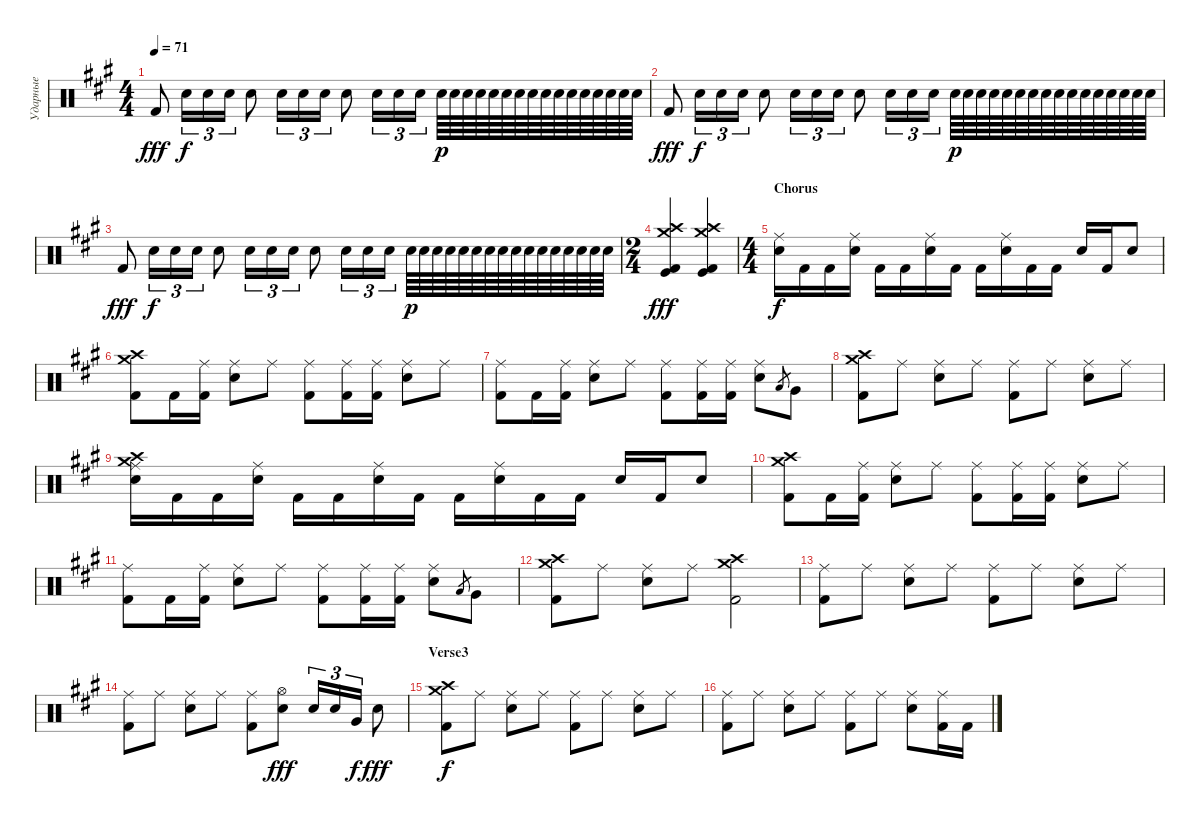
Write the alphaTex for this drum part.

\track ("Ударные" "Ударные") {instrument percussion}
\staff {score}
\articulation defaults
\ts (4 4)
\tempo 71
\clef neutral
\ks f#minor "Kick (hit) 2".8{dy fff} "Electric Snare (hit)".16{tu (3 2) dy f} "Electric Snare (hit)".16{tu (3 2)} "Electric Snare (hit)".16{tu (3 2)} "Electric Snare (hit)".8 "Electric Snare (hit)".16{tu (3 2)} "Electric Snare (hit)".16{tu (3 2)} "Electric Snare (hit)".16{tu (3 2)} "Electric Snare (hit)".8 "Electric Snare (hit)".16{tu (3 2)} "Electric Snare (hit)".16{tu (3 2)} "Electric Snare (hit)".16{tu (3 2)} "Electric Snare (hit)".64{dy p} "Electric Snare (hit)".64 "Electric Snare (hit)".64 "Electric Snare (hit)".64 "Electric Snare (hit)".64 "Electric Snare (hit)".64 "Electric Snare (hit)".64 "Electric Snare (hit)".64 "Electric Snare (hit)".64 "Electric Snare (hit)".64 "Electric Snare (hit)".64 "Electric Snare (hit)".64 "Electric Snare (hit)".64 "Electric Snare (hit)".64 "Electric Snare (hit)".64 "Electric Snare (hit)".64
|
"Kick (hit) 2".8{dy fff} "Electric Snare (hit)".16{tu (3 2) dy f} "Electric Snare (hit)".16{tu (3 2)} "Electric Snare (hit)".16{tu (3 2)} "Electric Snare (hit)".8 "Electric Snare (hit)".16{tu (3 2)} "Electric Snare (hit)".16{tu (3 2)} "Electric Snare (hit)".16{tu (3 2)} "Electric Snare (hit)".8 "Electric Snare (hit)".16{tu (3 2)} "Electric Snare (hit)".16{tu (3 2)} "Electric Snare (hit)".16{tu (3 2)} "Electric Snare (hit)".64{dy p} "Electric Snare (hit)".64 "Electric Snare (hit)".64 "Electric Snare (hit)".64 "Electric Snare (hit)".64 "Electric Snare (hit)".64 "Electric Snare (hit)".64 "Electric Snare (hit)".64 "Electric Snare (hit)".64 "Electric Snare (hit)".64 "Electric Snare (hit)".64 "Electric Snare (hit)".64 "Electric Snare (hit)".64 "Electric Snare (hit)".64 "Electric Snare (hit)".64 "Electric Snare (hit)".64 |
"Kick (hit) 2".8{dy fff} "Electric Snare (hit)".16{tu (3 2) dy f} "Electric Snare (hit)".16{tu (3 2)} "Electric Snare (hit)".16{tu (3 2)} "Electric Snare (hit)".8 "Electric Snare (hit)".16{tu (3 2)} "Electric Snare (hit)".16{tu (3 2)} "Electric Snare (hit)".16{tu (3 2)} "Electric Snare (hit)".8 "Electric Snare (hit)".16{tu (3 2)} "Electric Snare (hit)".16{tu (3 2)} "Electric Snare (hit)".16{tu (3 2)} "Electric Snare (hit)".64{dy p} "Electric Snare (hit)".64 "Electric Snare (hit)".64 "Electric Snare (hit)".64 "Electric Snare (hit)".64 "Electric Snare (hit)".64 "Electric Snare (hit)".64 "Electric Snare (hit)".64 "Electric Snare (hit)".64 "Electric Snare (hit)".64 "Electric Snare (hit)".64 "Electric Snare (hit)".64 "Electric Snare (hit)".64 "Electric Snare (hit)".64 "Electric Snare (hit)".64 "Electric Snare (hit)".64 |
\ts (2 4)
("Crash high (hit)" "Crash medium (hit)" "Kick (hit) 2" "Kick (hit)").4{dy fff} ("Crash high (hit)" "Crash medium (hit)" "Kick (hit) 2" "Kick (hit)").4 |
\ts (4 4)
\section ("" "Chorus")
("Ride (middle)" "Electric Snare (hit)").16{dy f} "Kick (hit) 2".16 "Kick (hit) 2".16 ("Ride (middle)" "Electric Snare (hit)").16 "Kick (hit) 2".16 "Kick (hit) 2".16 ("Ride (middle)" "Electric Snare (hit)").16 "Kick (hit) 2".16 "Kick (hit) 2".16 ("Ride (middle)" "Electric Snare (hit)").16 "Kick (hit) 2".16 "Kick (hit) 2".16 "Electric Snare (hit)".16 "Kick (hit) 2".16 "Electric Snare (hit)".8 |
("Crash high (hit)" "Kick (hit) 2" "Crash medium (hit)").8 "Kick (hit) 2".16 ("Ride (middle)" "Kick (hit) 2").16 ("Ride (middle)" "Electric Snare (hit)").8 "Ride (middle)".8 ("Ride (middle)" "Kick (hit) 2").8 ("Ride (middle)" "Kick (hit) 2").16 ("Ride (middle)" "Kick (hit) 2").16 ("Ride (middle)" "Electric Snare (hit)").8 "Ride (middle)".8 |
("Ride (middle)" "Kick (hit) 2").8 "Kick (hit) 2".16 ("Ride (middle)" "Kick (hit) 2").16 ("Ride (middle)" "Electric Snare (hit)").8 "Ride (middle)".8 ("Ride (middle)" "Kick (hit) 2").8 ("Ride (middle)" "Kick (hit) 2").16 ("Ride (middle)" "Kick (hit) 2").16 ("Ride (middle)" "Electric Snare (hit)").8 "Low Floor Tom (hit)".8{gr} "Very Low Tom (hit)".8 |
("Crash high (hit)" "Kick (hit) 2" "Crash medium (hit)").8 "Ride (middle)".8 ("Ride (middle)" "Electric Snare (hit)").8 "Ride (middle)".8 ("Ride (middle)" "Kick (hit) 2").8 "Ride (middle)".8 ("Ride (middle)" "Electric Snare (hit)").8 "Ride (middle)".8 |
("Ride (middle)" "Crash high (hit)" "Electric Snare (hit)" "Crash medium (hit)").16 "Kick (hit) 2".16 "Kick (hit) 2".16 ("Ride (middle)" "Electric Snare (hit)").16 "Kick (hit) 2".16 "Kick (hit) 2".16 ("Ride (middle)" "Electric Snare (hit)").16 "Kick (hit) 2".16 "Kick (hit) 2".16 ("Ride (middle)" "Electric Snare (hit)").16 "Kick (hit) 2".16 "Kick (hit) 2".16 "Electric Snare (hit)".16 "Kick (hit) 2".16 "Electric Snare (hit)".8 |
("Crash high (hit)" "Kick (hit) 2" "Crash medium (hit)").8 "Kick (hit) 2".16 ("Ride (middle)" "Kick (hit) 2").16 ("Ride (middle)" "Electric Snare (hit)").8 "Ride (middle)".8 ("Ride (middle)" "Kick (hit) 2").8 ("Ride (middle)" "Kick (hit) 2").16 ("Ride (middle)" "Kick (hit) 2").16 ("Ride (middle)" "Electric Snare (hit)").8 "Ride (middle)".8 |
("Ride (middle)" "Kick (hit) 2").8 "Kick (hit) 2".16 ("Ride (middle)" "Kick (hit) 2").16 ("Ride (middle)" "Electric Snare (hit)").8 "Ride (middle)".8 ("Ride (middle)" "Kick (hit) 2").8 ("Ride (middle)" "Kick (hit) 2").16 ("Ride (middle)" "Kick (hit) 2").16 ("Ride (middle)" "Electric Snare (hit)").8 "Low Floor Tom (hit)".8{gr} "Very Low Tom (hit)".8 |
("Crash high (hit)" "Kick (hit) 2" "Crash medium (hit)").8 "Ride (middle)".8 ("Ride (middle)" "Electric Snare (hit)").8 "Ride (middle)".8 ("Crash high (hit)" "Crash medium (hit)" "Kick (hit) 2").2 |
("Ride (middle)" "Kick (hit) 2").8 "Ride (middle)".8 ("Ride (middle)" "Electric Snare (hit)").8 "Ride (middle)".8 ("Ride (middle)" "Kick (hit) 2").8 "Ride (middle)".8 ("Ride (middle)" "Electric Snare (hit)").8 "Ride (middle)".8 |
("Ride (middle)" "Kick (hit) 2").8 "Ride (middle)".8 ("Ride (middle)" "Electric Snare (hit)").8 "Ride (middle)".8 ("Ride (middle)" "Kick (hit) 2").8 ("Hi-Hat (open)" "Electric Snare (hit)").8{dy fff} "Electric Snare (hit)".16{tu (3 2)} "Electric Snare (hit)".16{tu (3 2)} "Very Low Tom (hit)".16{tu (3 2) dy f} "Electric Snare (hit)".8{dy fff} |
\section ("" "Verse3")
("Crash high (hit)" "Kick (hit) 2" "Crash medium (hit)").8{dy f} "Ride (middle)".8 ("Ride (middle)" "Electric Snare (hit)").8 "Ride (middle)".8 ("Ride (middle)" "Kick (hit) 2").8 "Ride (middle)".8 ("Ride (middle)" "Electric Snare (hit)").8 "Ride (middle)".8 |
("Ride (middle)" "Kick (hit) 2").8 "Ride (middle)".8 ("Ride (middle)" "Electric Snare (hit)").8 "Ride (middle)".8 ("Ride (middle)" "Kick (hit) 2").8 "Ride (middle)".8 ("Ride (middle)" "Electric Snare (hit)").8 ("Ride (middle)" "Kick (hit) 2").16 "Kick (hit) 2".16
